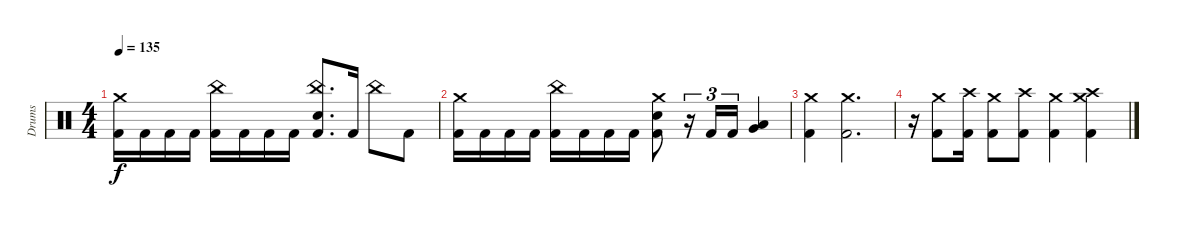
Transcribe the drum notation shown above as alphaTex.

\track ("Drums" "Drums") {instrument percussion}
\staff {score}
\articulation defaults
\ts (4 4)
\tempo 135
\clef neutral
\ks c
("Crash medium (hit)" "Kick (hit) 2").16{dy f} "Kick (hit) 2".16 "Kick (hit) 2".16 "Kick (hit) 2".16 ("China (hit)" "Kick (hit) 2").16 "Kick (hit) 2".16 "Kick (hit) 2".16 "Kick (hit) 2".16 ("China (hit)" "Electric Snare (hit)" "Kick (hit) 2").8{d} "Kick (hit) 2".16 "China (hit)".8 "Kick (hit) 2".8 |
("Crash medium (hit)" "Kick (hit) 2").16 "Kick (hit) 2".16 "Kick (hit) 2".16 "Kick (hit) 2".16 ("China (hit)" "Kick (hit) 2").16 "Kick (hit) 2".16 "Kick (hit) 2".16 "Kick (hit) 2".16 ("Crash medium (hit)" "Electric Snare (hit)" "Kick (hit) 2").8 r.16{tu (3 2)} "Kick (hit) 2".16{tu (3 2)} "Kick (hit) 2".16{tu (3 2)} ("Low Tom (hit)" "Very Low Tom (hit)").4 |
("Crash medium (hit)" "Kick (hit) 2").4 ("Crash medium (hit)" "Kick (hit) 2").2{d} |
r.16 ("Crash medium (hit)" "Kick (hit) 2").8 ("Crash high (hit)" "Kick (hit) 2").16 ("Crash medium (hit)" "Kick (hit) 2").8 ("Crash high (hit)" "Kick (hit) 2").8 ("Crash medium (hit)" "Kick (hit) 2").4 ("Crash high (hit)" "Crash medium (hit)" "Kick (hit) 2").4
